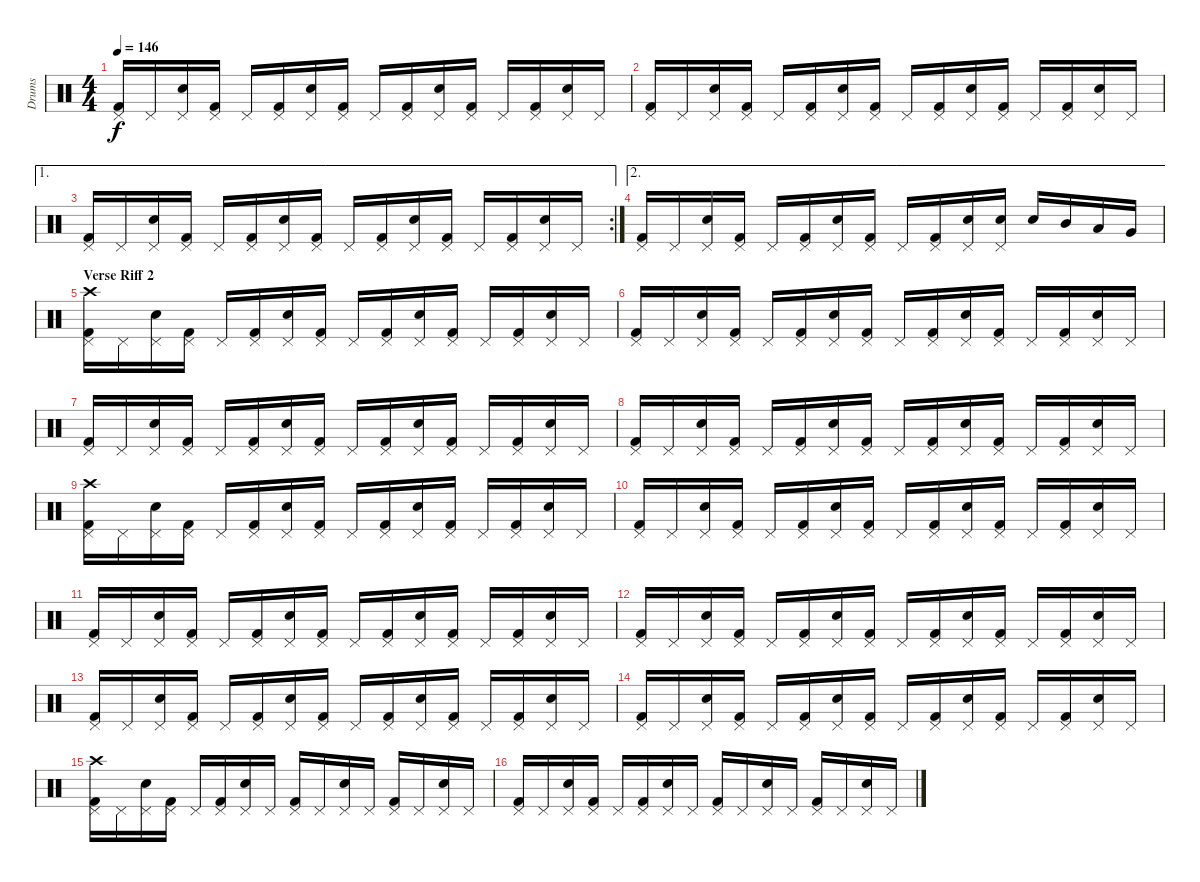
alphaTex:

\track ("Drums" "Drums") {instrument percussion}
\staff {score}
\articulation defaults
\ts (4 4)
\tempo 146
\clef neutral
\ks c
("Kick (hit) 2" "Pedal Hi-Hat (hit)").16{dy f} "Pedal Hi-Hat (hit)".16 ("Snare (hit) 2" "Pedal Hi-Hat (hit)").16 ("Kick (hit) 2" "Pedal Hi-Hat (hit)").16 "Pedal Hi-Hat (hit)".16 ("Kick (hit) 2" "Pedal Hi-Hat (hit)").16 ("Snare (hit) 2" "Pedal Hi-Hat (hit)").16 ("Kick (hit) 2" "Pedal Hi-Hat (hit)").16 "Pedal Hi-Hat (hit)".16 ("Kick (hit) 2" "Pedal Hi-Hat (hit)").16 ("Snare (hit) 2" "Pedal Hi-Hat (hit)").16 ("Kick (hit) 2" "Pedal Hi-Hat (hit)").16 "Pedal Hi-Hat (hit)".16 ("Kick (hit) 2" "Pedal Hi-Hat (hit)").16 ("Snare (hit) 2" "Pedal Hi-Hat (hit)").16 "Pedal Hi-Hat (hit)".16 |
("Kick (hit) 2" "Pedal Hi-Hat (hit)").16 "Pedal Hi-Hat (hit)".16 ("Snare (hit) 2" "Pedal Hi-Hat (hit)").16 ("Kick (hit) 2" "Pedal Hi-Hat (hit)").16 "Pedal Hi-Hat (hit)".16 ("Kick (hit) 2" "Pedal Hi-Hat (hit)").16 ("Snare (hit) 2" "Pedal Hi-Hat (hit)").16 ("Kick (hit) 2" "Pedal Hi-Hat (hit)").16 "Pedal Hi-Hat (hit)".16 ("Kick (hit) 2" "Pedal Hi-Hat (hit)").16 ("Snare (hit) 2" "Pedal Hi-Hat (hit)").16 ("Kick (hit) 2" "Pedal Hi-Hat (hit)").16 "Pedal Hi-Hat (hit)".16 ("Kick (hit) 2" "Pedal Hi-Hat (hit)").16 ("Snare (hit) 2" "Pedal Hi-Hat (hit)").16 "Pedal Hi-Hat (hit)".16 |
\ae 1
\rc 2
("Kick (hit) 2" "Pedal Hi-Hat (hit)").16 "Pedal Hi-Hat (hit)".16 ("Snare (hit) 2" "Pedal Hi-Hat (hit)").16 ("Kick (hit) 2" "Pedal Hi-Hat (hit)").16 "Pedal Hi-Hat (hit)".16 ("Kick (hit) 2" "Pedal Hi-Hat (hit)").16 ("Snare (hit) 2" "Pedal Hi-Hat (hit)").16 ("Kick (hit) 2" "Pedal Hi-Hat (hit)").16 "Pedal Hi-Hat (hit)".16 ("Kick (hit) 2" "Pedal Hi-Hat (hit)").16 ("Snare (hit) 2" "Pedal Hi-Hat (hit)").16 ("Kick (hit) 2" "Pedal Hi-Hat (hit)").16 "Pedal Hi-Hat (hit)".16 ("Kick (hit) 2" "Pedal Hi-Hat (hit)").16 ("Snare (hit) 2" "Pedal Hi-Hat (hit)").16 "Pedal Hi-Hat (hit)".16 |
\ae 2
("Kick (hit) 2" "Pedal Hi-Hat (hit)").16 "Pedal Hi-Hat (hit)".16 ("Snare (hit) 2" "Pedal Hi-Hat (hit)").16 ("Kick (hit) 2" "Pedal Hi-Hat (hit)").16 "Pedal Hi-Hat (hit)".16 ("Kick (hit) 2" "Pedal Hi-Hat (hit)").16 ("Snare (hit) 2" "Pedal Hi-Hat (hit)").16 ("Kick (hit) 2" "Pedal Hi-Hat (hit)").16 "Pedal Hi-Hat (hit)".16 ("Kick (hit) 2" "Pedal Hi-Hat (hit)").16 ("Snare (hit) 2" "Pedal Hi-Hat (hit)").16 ("Snare (hit) 2" "Pedal Hi-Hat (hit)").16 "Snare (hit) 2".16 "Mid Tom (hit)".16 "Low Tom (hit)".16 "Very Low Tom (hit)".16 |
\section ("" "Verse Riff 2")
("Kick (hit) 2" "Pedal Hi-Hat (hit)" "Crash high (hit)").16 "Pedal Hi-Hat (hit)".16 ("Snare (hit) 2" "Pedal Hi-Hat (hit)").16 ("Kick (hit) 2" "Pedal Hi-Hat (hit)").16 "Pedal Hi-Hat (hit)".16 ("Kick (hit) 2" "Pedal Hi-Hat (hit)").16 ("Snare (hit) 2" "Pedal Hi-Hat (hit)").16 ("Kick (hit) 2" "Pedal Hi-Hat (hit)").16 "Pedal Hi-Hat (hit)".16 ("Kick (hit) 2" "Pedal Hi-Hat (hit)").16 ("Snare (hit) 2" "Pedal Hi-Hat (hit)").16 ("Kick (hit) 2" "Pedal Hi-Hat (hit)").16 "Pedal Hi-Hat (hit)".16 ("Kick (hit) 2" "Pedal Hi-Hat (hit)").16 ("Snare (hit) 2" "Pedal Hi-Hat (hit)").16 "Pedal Hi-Hat (hit)".16 |
("Kick (hit) 2" "Pedal Hi-Hat (hit)").16 "Pedal Hi-Hat (hit)".16 ("Snare (hit) 2" "Pedal Hi-Hat (hit)").16 ("Kick (hit) 2" "Pedal Hi-Hat (hit)").16 "Pedal Hi-Hat (hit)".16 ("Kick (hit) 2" "Pedal Hi-Hat (hit)").16 ("Snare (hit) 2" "Pedal Hi-Hat (hit)").16 ("Kick (hit) 2" "Pedal Hi-Hat (hit)").16 "Pedal Hi-Hat (hit)".16 ("Kick (hit) 2" "Pedal Hi-Hat (hit)").16 ("Snare (hit) 2" "Pedal Hi-Hat (hit)").16 ("Kick (hit) 2" "Pedal Hi-Hat (hit)").16 "Pedal Hi-Hat (hit)".16 ("Kick (hit) 2" "Pedal Hi-Hat (hit)").16 ("Snare (hit) 2" "Pedal Hi-Hat (hit)").16 "Pedal Hi-Hat (hit)".16 |
("Kick (hit) 2" "Pedal Hi-Hat (hit)").16 "Pedal Hi-Hat (hit)".16 ("Snare (hit) 2" "Pedal Hi-Hat (hit)").16 ("Kick (hit) 2" "Pedal Hi-Hat (hit)").16 "Pedal Hi-Hat (hit)".16 ("Kick (hit) 2" "Pedal Hi-Hat (hit)").16 ("Snare (hit) 2" "Pedal Hi-Hat (hit)").16 ("Kick (hit) 2" "Pedal Hi-Hat (hit)").16 "Pedal Hi-Hat (hit)".16 ("Kick (hit) 2" "Pedal Hi-Hat (hit)").16 ("Snare (hit) 2" "Pedal Hi-Hat (hit)").16 ("Kick (hit) 2" "Pedal Hi-Hat (hit)").16 "Pedal Hi-Hat (hit)".16 ("Kick (hit) 2" "Pedal Hi-Hat (hit)").16 ("Snare (hit) 2" "Pedal Hi-Hat (hit)").16 "Pedal Hi-Hat (hit)".16 |
("Kick (hit) 2" "Pedal Hi-Hat (hit)").16 "Pedal Hi-Hat (hit)".16 ("Snare (hit) 2" "Pedal Hi-Hat (hit)").16 ("Kick (hit) 2" "Pedal Hi-Hat (hit)").16 "Pedal Hi-Hat (hit)".16 ("Kick (hit) 2" "Pedal Hi-Hat (hit)").16 ("Snare (hit) 2" "Pedal Hi-Hat (hit)").16 ("Kick (hit) 2" "Pedal Hi-Hat (hit)").16 "Pedal Hi-Hat (hit)".16 ("Kick (hit) 2" "Pedal Hi-Hat (hit)").16 ("Snare (hit) 2" "Pedal Hi-Hat (hit)").16 ("Kick (hit) 2" "Pedal Hi-Hat (hit)").16 "Pedal Hi-Hat (hit)".16 ("Kick (hit) 2" "Pedal Hi-Hat (hit)").16 ("Snare (hit) 2" "Pedal Hi-Hat (hit)").16 "Pedal Hi-Hat (hit)".16 |
("Kick (hit) 2" "Pedal Hi-Hat (hit)" "Crash high (hit)").16 "Pedal Hi-Hat (hit)".16 ("Snare (hit) 2" "Pedal Hi-Hat (hit)").16 ("Kick (hit) 2" "Pedal Hi-Hat (hit)").16 "Pedal Hi-Hat (hit)".16 ("Kick (hit) 2" "Pedal Hi-Hat (hit)").16 ("Snare (hit) 2" "Pedal Hi-Hat (hit)").16 ("Kick (hit) 2" "Pedal Hi-Hat (hit)").16 "Pedal Hi-Hat (hit)".16 ("Kick (hit) 2" "Pedal Hi-Hat (hit)").16 ("Snare (hit) 2" "Pedal Hi-Hat (hit)").16 ("Kick (hit) 2" "Pedal Hi-Hat (hit)").16 "Pedal Hi-Hat (hit)".16 ("Kick (hit) 2" "Pedal Hi-Hat (hit)").16 ("Snare (hit) 2" "Pedal Hi-Hat (hit)").16 "Pedal Hi-Hat (hit)".16 |
("Kick (hit) 2" "Pedal Hi-Hat (hit)").16 "Pedal Hi-Hat (hit)".16 ("Snare (hit) 2" "Pedal Hi-Hat (hit)").16 ("Kick (hit) 2" "Pedal Hi-Hat (hit)").16 "Pedal Hi-Hat (hit)".16 ("Kick (hit) 2" "Pedal Hi-Hat (hit)").16 ("Snare (hit) 2" "Pedal Hi-Hat (hit)").16 ("Kick (hit) 2" "Pedal Hi-Hat (hit)").16 "Pedal Hi-Hat (hit)".16 ("Kick (hit) 2" "Pedal Hi-Hat (hit)").16 ("Snare (hit) 2" "Pedal Hi-Hat (hit)").16 ("Kick (hit) 2" "Pedal Hi-Hat (hit)").16 "Pedal Hi-Hat (hit)".16 ("Kick (hit) 2" "Pedal Hi-Hat (hit)").16 ("Snare (hit) 2" "Pedal Hi-Hat (hit)").16 "Pedal Hi-Hat (hit)".16 |
("Kick (hit) 2" "Pedal Hi-Hat (hit)").16 "Pedal Hi-Hat (hit)".16 ("Snare (hit) 2" "Pedal Hi-Hat (hit)").16 ("Kick (hit) 2" "Pedal Hi-Hat (hit)").16 "Pedal Hi-Hat (hit)".16 ("Kick (hit) 2" "Pedal Hi-Hat (hit)").16 ("Snare (hit) 2" "Pedal Hi-Hat (hit)").16 ("Kick (hit) 2" "Pedal Hi-Hat (hit)").16 "Pedal Hi-Hat (hit)".16 ("Kick (hit) 2" "Pedal Hi-Hat (hit)").16 ("Snare (hit) 2" "Pedal Hi-Hat (hit)").16 ("Kick (hit) 2" "Pedal Hi-Hat (hit)").16 "Pedal Hi-Hat (hit)".16 ("Kick (hit) 2" "Pedal Hi-Hat (hit)").16 ("Snare (hit) 2" "Pedal Hi-Hat (hit)").16 "Pedal Hi-Hat (hit)".16 |
("Kick (hit) 2" "Pedal Hi-Hat (hit)").16 "Pedal Hi-Hat (hit)".16 ("Snare (hit) 2" "Pedal Hi-Hat (hit)").16 ("Kick (hit) 2" "Pedal Hi-Hat (hit)").16 "Pedal Hi-Hat (hit)".16 ("Kick (hit) 2" "Pedal Hi-Hat (hit)").16 ("Snare (hit) 2" "Pedal Hi-Hat (hit)").16 ("Kick (hit) 2" "Pedal Hi-Hat (hit)").16 "Pedal Hi-Hat (hit)".16 ("Kick (hit) 2" "Pedal Hi-Hat (hit)").16 ("Snare (hit) 2" "Pedal Hi-Hat (hit)").16 ("Kick (hit) 2" "Pedal Hi-Hat (hit)").16 "Pedal Hi-Hat (hit)".16 ("Kick (hit) 2" "Pedal Hi-Hat (hit)").16 ("Snare (hit) 2" "Pedal Hi-Hat (hit)").16 "Pedal Hi-Hat (hit)".16 |
("Kick (hit) 2" "Pedal Hi-Hat (hit)").16 "Pedal Hi-Hat (hit)".16 ("Snare (hit) 2" "Pedal Hi-Hat (hit)").16 ("Kick (hit) 2" "Pedal Hi-Hat (hit)").16 "Pedal Hi-Hat (hit)".16 ("Kick (hit) 2" "Pedal Hi-Hat (hit)").16 ("Snare (hit) 2" "Pedal Hi-Hat (hit)").16 ("Kick (hit) 2" "Pedal Hi-Hat (hit)").16 "Pedal Hi-Hat (hit)".16 ("Kick (hit) 2" "Pedal Hi-Hat (hit)").16 ("Snare (hit) 2" "Pedal Hi-Hat (hit)").16 ("Kick (hit) 2" "Pedal Hi-Hat (hit)").16 "Pedal Hi-Hat (hit)".16 ("Kick (hit) 2" "Pedal Hi-Hat (hit)").16 ("Snare (hit) 2" "Pedal Hi-Hat (hit)").16 "Pedal Hi-Hat (hit)".16 |
("Kick (hit) 2" "Pedal Hi-Hat (hit)").16 "Pedal Hi-Hat (hit)".16 ("Snare (hit) 2" "Pedal Hi-Hat (hit)").16 ("Kick (hit) 2" "Pedal Hi-Hat (hit)").16 "Pedal Hi-Hat (hit)".16 ("Kick (hit) 2" "Pedal Hi-Hat (hit)").16 ("Snare (hit) 2" "Pedal Hi-Hat (hit)").16 ("Kick (hit) 2" "Pedal Hi-Hat (hit)").16 "Pedal Hi-Hat (hit)".16 ("Kick (hit) 2" "Pedal Hi-Hat (hit)").16 ("Snare (hit) 2" "Pedal Hi-Hat (hit)").16 ("Kick (hit) 2" "Pedal Hi-Hat (hit)").16 "Pedal Hi-Hat (hit)".16 ("Kick (hit) 2" "Pedal Hi-Hat (hit)").16 ("Snare (hit) 2" "Pedal Hi-Hat (hit)").16 "Pedal Hi-Hat (hit)".16 |
("Kick (hit) 2" "Pedal Hi-Hat (hit)" "Crash high (hit)").16 "Pedal Hi-Hat (hit)".16 ("Snare (hit) 2" "Pedal Hi-Hat (hit)").16 ("Kick (hit) 2" "Pedal Hi-Hat (hit)").16 "Pedal Hi-Hat (hit)".16 ("Kick (hit) 2" "Pedal Hi-Hat (hit)").16 ("Snare (hit) 2" "Pedal Hi-Hat (hit)").16 "Pedal Hi-Hat (hit)".16 ("Kick (hit) 2" "Pedal Hi-Hat (hit)").16 "Pedal Hi-Hat (hit)".16 ("Snare (hit) 2" "Pedal Hi-Hat (hit)").16 "Pedal Hi-Hat (hit)".16 ("Kick (hit) 2" "Pedal Hi-Hat (hit)").16 "Pedal Hi-Hat (hit)".16 ("Snare (hit) 2" "Pedal Hi-Hat (hit)").16 "Pedal Hi-Hat (hit)".16 |
("Kick (hit) 2" "Pedal Hi-Hat (hit)").16 "Pedal Hi-Hat (hit)".16 ("Snare (hit) 2" "Pedal Hi-Hat (hit)").16 ("Kick (hit) 2" "Pedal Hi-Hat (hit)").16 "Pedal Hi-Hat (hit)".16 ("Kick (hit) 2" "Pedal Hi-Hat (hit)").16 ("Snare (hit) 2" "Pedal Hi-Hat (hit)").16 "Pedal Hi-Hat (hit)".16 ("Kick (hit) 2" "Pedal Hi-Hat (hit)").16 "Pedal Hi-Hat (hit)".16 ("Snare (hit) 2" "Pedal Hi-Hat (hit)").16 "Pedal Hi-Hat (hit)".16 ("Kick (hit) 2" "Pedal Hi-Hat (hit)").16 "Pedal Hi-Hat (hit)".16 ("Snare (hit) 2" "Pedal Hi-Hat (hit)").16 "Pedal Hi-Hat (hit)".16
